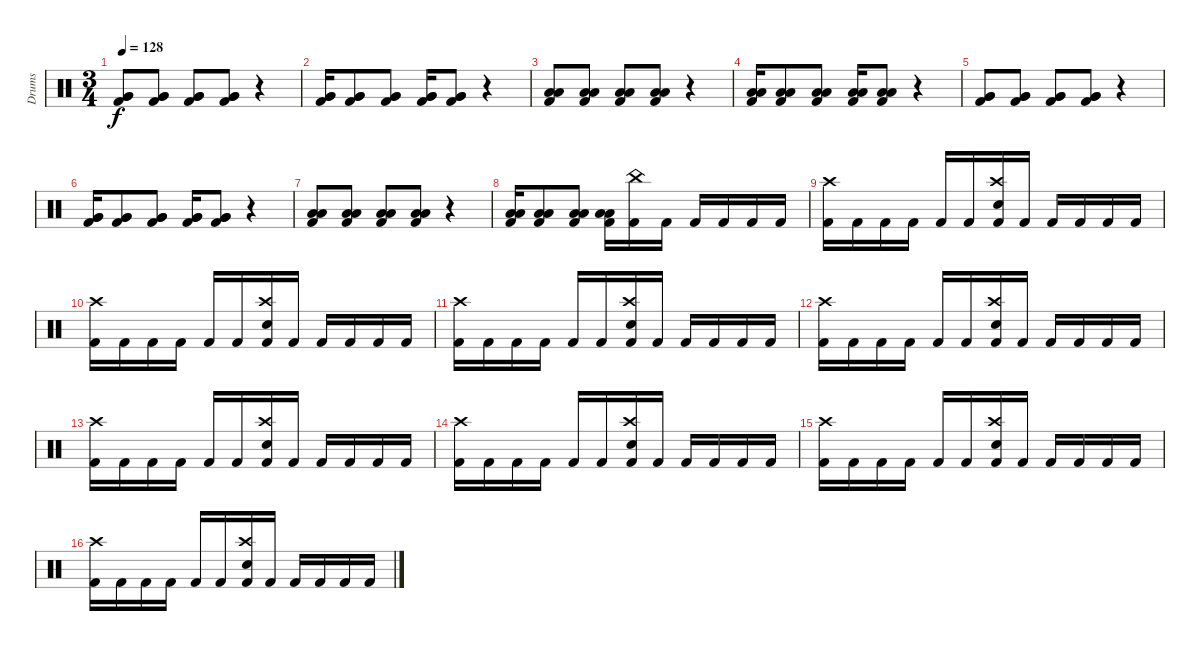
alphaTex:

\track ("Drums" "Drums") {instrument percussion}
\staff {score}
\articulation defaults
\ts (3 4)
\tempo 128
\clef neutral
\ks c
("Very Low Tom (hit)" "Very Low Tom (hit)" "Kick (hit) 2").8{dy f} ("Very Low Tom (hit)" "Very Low Tom (hit)" "Kick (hit) 2").8 ("Very Low Tom (hit)" "Very Low Tom (hit)" "Kick (hit) 2").8 ("Very Low Tom (hit)" "Very Low Tom (hit)" "Kick (hit) 2").8 r.4 |
("Very Low Tom (hit)" "Very Low Tom (hit)" "Kick (hit) 2").16 ("Very Low Tom (hit)" "Very Low Tom (hit)" "Kick (hit) 2").8 ("Very Low Tom (hit)" "Very Low Tom (hit)" "Kick (hit) 2").8 ("Very Low Tom (hit)" "Very Low Tom (hit)" "Kick (hit) 2").16 ("Very Low Tom (hit)" "Very Low Tom (hit)" "Kick (hit) 2").8 r.4 |
("Low Tom (hit)" "Low Tom (hit)" "Kick (hit) 2").8 ("Low Tom (hit)" "Low Tom (hit)" "Kick (hit) 2").8 ("Low Tom (hit)" "Low Tom (hit)" "Kick (hit) 2").8 ("Low Tom (hit)" "Low Tom (hit)" "Kick (hit) 2").8 r.4 |
("Low Tom (hit)" "Low Tom (hit)" "Kick (hit) 2").16 ("Low Tom (hit)" "Low Tom (hit)" "Kick (hit) 2").8 ("Low Tom (hit)" "Low Tom (hit)" "Kick (hit) 2").8 ("Low Tom (hit)" "Low Tom (hit)" "Kick (hit) 2").16 ("Low Tom (hit)" "Low Tom (hit)" "Kick (hit) 2").8 r.4 |
("Very Low Tom (hit)" "Very Low Tom (hit)" "Kick (hit) 2").8 ("Very Low Tom (hit)" "Very Low Tom (hit)" "Kick (hit) 2").8 ("Very Low Tom (hit)" "Very Low Tom (hit)" "Kick (hit) 2").8 ("Very Low Tom (hit)" "Very Low Tom (hit)" "Kick (hit) 2").8 r.4 |
("Very Low Tom (hit)" "Very Low Tom (hit)" "Kick (hit) 2").16 ("Very Low Tom (hit)" "Very Low Tom (hit)" "Kick (hit) 2").8 ("Very Low Tom (hit)" "Very Low Tom (hit)" "Kick (hit) 2").8 ("Very Low Tom (hit)" "Very Low Tom (hit)" "Kick (hit) 2").16 ("Very Low Tom (hit)" "Very Low Tom (hit)" "Kick (hit) 2").8 r.4 |
("Low Tom (hit)" "Low Tom (hit)" "Kick (hit) 2").8 ("Low Tom (hit)" "Low Tom (hit)" "Kick (hit) 2").8 ("Low Tom (hit)" "Low Tom (hit)" "Kick (hit) 2").8 ("Low Tom (hit)" "Low Tom (hit)" "Kick (hit) 2").8 r.4 |
("Low Tom (hit)" "Low Tom (hit)" "Kick (hit) 2").16 ("Low Tom (hit)" "Low Tom (hit)" "Kick (hit) 2").8 ("Low Tom (hit)" "Low Tom (hit)" "Kick (hit) 2").8 ("Low Tom (hit)" "Low Tom (hit)" "Kick (hit) 2").16 ("China (hit)" "Kick (hit) 2").16 "Kick (hit) 2".16 "Kick (hit) 2".16 "Kick (hit) 2".16 "Kick (hit) 2".16 "Kick (hit) 2".16 |
("Crash high (hit)" "Kick (hit) 2").16 "Kick (hit) 2".16 "Kick (hit) 2".16 "Kick (hit) 2".16 "Kick (hit) 2".16 "Kick (hit) 2".16 ("Crash high (hit)" "Snare (hit) 2" "Kick (hit) 2").16 "Kick (hit) 2".16 "Kick (hit) 2".16 "Kick (hit) 2".16 "Kick (hit) 2".16 "Kick (hit) 2".16 |
("Crash high (hit)" "Kick (hit) 2").16 "Kick (hit) 2".16 "Kick (hit) 2".16 "Kick (hit) 2".16 "Kick (hit) 2".16 "Kick (hit) 2".16 ("Crash high (hit)" "Snare (hit) 2" "Kick (hit) 2").16 "Kick (hit) 2".16 "Kick (hit) 2".16 "Kick (hit) 2".16 "Kick (hit) 2".16 "Kick (hit) 2".16 |
("Crash high (hit)" "Kick (hit) 2").16 "Kick (hit) 2".16 "Kick (hit) 2".16 "Kick (hit) 2".16 "Kick (hit) 2".16 "Kick (hit) 2".16 ("Crash high (hit)" "Snare (hit) 2" "Kick (hit) 2").16 "Kick (hit) 2".16 "Kick (hit) 2".16 "Kick (hit) 2".16 "Kick (hit) 2".16 "Kick (hit) 2".16 |
("Crash high (hit)" "Kick (hit) 2").16 "Kick (hit) 2".16 "Kick (hit) 2".16 "Kick (hit) 2".16 "Kick (hit) 2".16 "Kick (hit) 2".16 ("Crash high (hit)" "Snare (hit) 2" "Kick (hit) 2").16 "Kick (hit) 2".16 "Kick (hit) 2".16 "Kick (hit) 2".16 "Kick (hit) 2".16 "Kick (hit) 2".16 |
("Crash high (hit)" "Kick (hit) 2").16 "Kick (hit) 2".16 "Kick (hit) 2".16 "Kick (hit) 2".16 "Kick (hit) 2".16 "Kick (hit) 2".16 ("Crash high (hit)" "Snare (hit) 2" "Kick (hit) 2").16 "Kick (hit) 2".16 "Kick (hit) 2".16 "Kick (hit) 2".16 "Kick (hit) 2".16 "Kick (hit) 2".16 |
("Crash high (hit)" "Kick (hit) 2").16 "Kick (hit) 2".16 "Kick (hit) 2".16 "Kick (hit) 2".16 "Kick (hit) 2".16 "Kick (hit) 2".16 ("Crash high (hit)" "Snare (hit) 2" "Kick (hit) 2").16 "Kick (hit) 2".16 "Kick (hit) 2".16 "Kick (hit) 2".16 "Kick (hit) 2".16 "Kick (hit) 2".16 |
("Crash high (hit)" "Kick (hit) 2").16 "Kick (hit) 2".16 "Kick (hit) 2".16 "Kick (hit) 2".16 "Kick (hit) 2".16 "Kick (hit) 2".16 ("Crash high (hit)" "Snare (hit) 2" "Kick (hit) 2").16 "Kick (hit) 2".16 "Kick (hit) 2".16 "Kick (hit) 2".16 "Kick (hit) 2".16 "Kick (hit) 2".16 |
("Crash high (hit)" "Kick (hit) 2").16 "Kick (hit) 2".16 "Kick (hit) 2".16 "Kick (hit) 2".16 "Kick (hit) 2".16 "Kick (hit) 2".16 ("Crash high (hit)" "Snare (hit) 2" "Kick (hit) 2").16 "Kick (hit) 2".16 "Kick (hit) 2".16 "Kick (hit) 2".16 "Kick (hit) 2".16 "Kick (hit) 2".16
